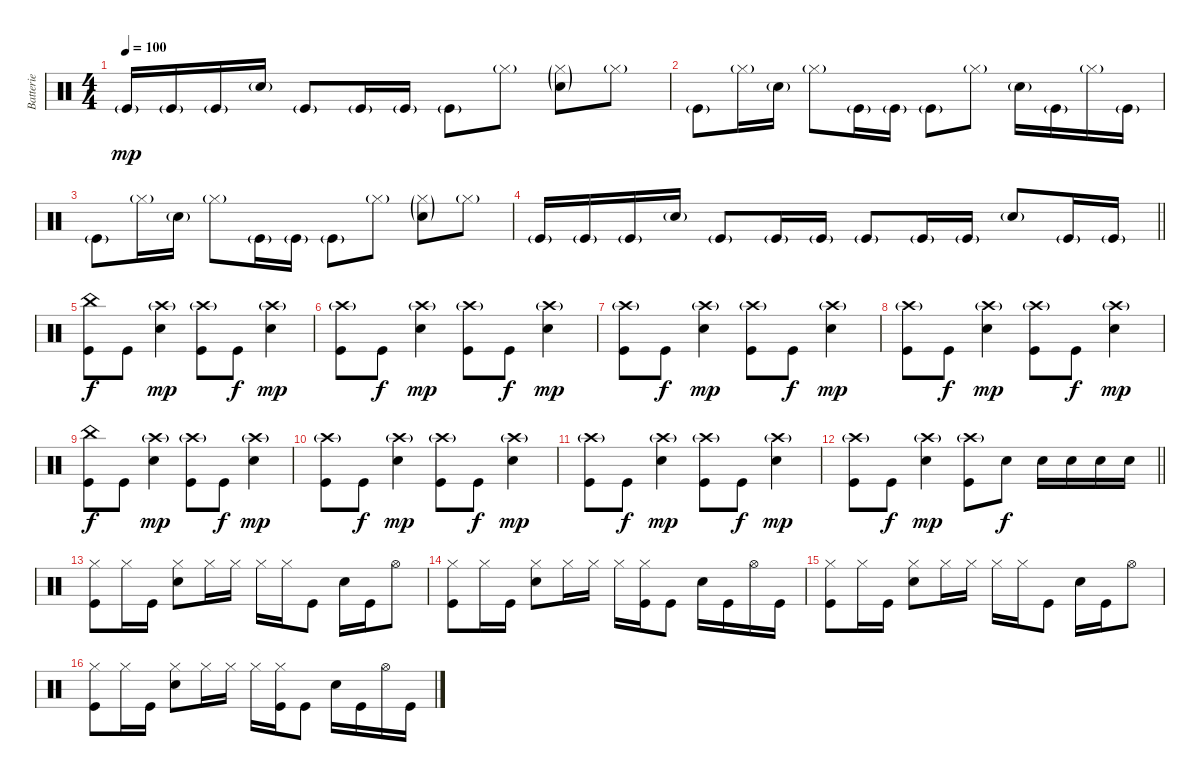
\track ("Batterie" "Batterie") {instrument percussion}
\staff {score}
\articulation defaults
\ts (4 4)
\tempo 100
\clef neutral
\ks c "Kick (hit)"{g}.16{dy mp} "Kick (hit)"{g}.16 "Kick (hit)"{g}.16 "Electric Snare (hit)"{g}.16 "Kick (hit)"{g}.8 "Kick (hit)"{g}.16 "Kick (hit)"{g}.16 "Kick (hit)"{g}.8 "Hi-Hat (closed)"{g}.8
("Hi-Hat (closed)"{g} "Electric Snare (hit)"{g}).8 "Hi-Hat (closed)"{g}.8 |
"Kick (hit)"{g}.8 "Hi-Hat (closed)"{g}.16 "Electric Snare (hit)"{g}.16 "Hi-Hat (closed)"{g}.8 "Kick (hit)"{g}.16 "Kick (hit)"{g}.16 "Kick (hit)"{g}.8 "Hi-Hat (closed)"{g}.8 "Electric Snare (hit)"{g}.16 "Kick (hit)"{g}.16 "Hi-Hat (closed)"{g}.16 "Kick (hit)"{g}.16 |
"Kick (hit)"{g}.8 "Hi-Hat (closed)"{g}.16 "Electric Snare (hit)"{g}.16 "Hi-Hat (closed)"{g}.8 "Kick (hit)"{g}.16 "Kick (hit)"{g}.16 "Kick (hit)"{g}.8 "Hi-Hat (closed)"{g}.8 ("Hi-Hat (closed)"{g} "Electric Snare (hit)"{g}).8 "Hi-Hat (closed)"{g}.8 |
\barLineRight lightlight "Kick (hit)"{g}.16 "Kick (hit)"{g}.16 "Kick (hit)"{g}.16 "Electric Snare (hit)"{g}.16 "Kick (hit)"{g}.8 "Kick (hit)"{g}.16 "Kick (hit)"{g}.16 "Kick (hit)"{g}.8 "Kick (hit)"{g}.16 "Kick (hit)"{g}.16 "Electric Snare (hit)"{g}.8 "Kick (hit)"{g}.16 "Kick (hit)"{g}.16
|
("China (hit)" "Kick (hit)").8{dy f} "Kick (hit)".8 ("Crash high (hit)"{g} "Electric Snare (hit)").4{dy mp} ("Crash high (hit)"{g} "Kick (hit)").8 "Kick (hit)".8{dy f} ("Crash high (hit)"{g} "Electric Snare (hit)").4{dy mp} |
("Crash high (hit)"{g} "Kick (hit)").8 "Kick (hit)".8{dy f} ("Crash high (hit)"{g} "Electric Snare (hit)").4{dy mp} ("Crash high (hit)"{g} "Kick (hit)").8 "Kick (hit)".8{dy f} ("Crash high (hit)"{g} "Electric Snare (hit)").4{dy mp} |
("Crash high (hit)"{g} "Kick (hit)").8 "Kick (hit)".8{dy f} ("Crash high (hit)"{g} "Electric Snare (hit)").4{dy mp} ("Crash high (hit)"{g} "Kick (hit)").8 "Kick (hit)".8{dy f} ("Crash high (hit)"{g} "Electric Snare (hit)").4{dy mp} |
("Crash high (hit)"{g} "Kick (hit)").8 "Kick (hit)".8{dy f} ("Crash high (hit)"{g} "Electric Snare (hit)").4{dy mp} ("Crash high (hit)"{g} "Kick (hit)").8 "Kick (hit)".8{dy f} ("Crash high (hit)"{g} "Electric Snare (hit)").4{dy mp} |
("China (hit)" "Kick (hit)").8{dy f} "Kick (hit)".8 ("Crash high (hit)"{g} "Electric Snare (hit)").4{dy mp} ("Crash high (hit)"{g} "Kick (hit)").8 "Kick (hit)".8{dy f} ("Crash high (hit)"{g} "Electric Snare (hit)").4{dy mp} |
("Crash high (hit)"{g} "Kick (hit)").8 "Kick (hit)".8{dy f} ("Crash high (hit)"{g} "Electric Snare (hit)").4{dy mp} ("Crash high (hit)"{g} "Kick (hit)").8 "Kick (hit)".8{dy f} ("Crash high (hit)"{g} "Electric Snare (hit)").4{dy mp} |
("Crash high (hit)"{g} "Kick (hit)").8 "Kick (hit)".8{dy f} ("Crash high (hit)"{g} "Electric Snare (hit)").4{dy mp} ("Crash high (hit)"{g} "Kick (hit)").8 "Kick (hit)".8{dy f} ("Crash high (hit)"{g} "Electric Snare (hit)").4{dy mp} |
\barLineRight lightlight
("Crash high (hit)"{g} "Kick (hit)").8 "Kick (hit)".8{dy f} ("Crash high (hit)"{g} "Electric Snare (hit)").4{dy mp} ("Crash high (hit)"{g} "Kick (hit)").8 "Electric Snare (hit)".8{dy f} "Electric Snare (hit)".16 "Electric Snare (hit)".16 "Electric Snare (hit)".16 "Electric Snare (hit)".16 |
("Hi-Hat (closed)" "Kick (hit)").8 "Hi-Hat (closed)".16 "Kick (hit)".16 ("Hi-Hat (closed)" "Electric Snare (hit)").8 "Hi-Hat (closed)".16 "Hi-Hat (closed)".16 "Hi-Hat (closed)".16 "Hi-Hat (closed)".16 "Kick (hit)".8 "Electric Snare (hit)".16 "Kick (hit)".16 "Hi-Hat (open)".8 |
("Hi-Hat (closed)" "Kick (hit)").8 "Hi-Hat (closed)".16 "Kick (hit)".16 ("Hi-Hat (closed)" "Electric Snare (hit)").8 "Hi-Hat (closed)".16 "Hi-Hat (closed)".16 "Hi-Hat (closed)".16 ("Hi-Hat (closed)" "Kick (hit)").16 "Kick (hit)".8 "Electric Snare (hit)".16 "Kick (hit)".16 "Hi-Hat (open)".16 "Kick (hit)".16 |
("Hi-Hat (closed)" "Kick (hit)").8 "Hi-Hat (closed)".16 "Kick (hit)".16 ("Hi-Hat (closed)" "Electric Snare (hit)").8 "Hi-Hat (closed)".16 "Hi-Hat (closed)".16 "Hi-Hat (closed)".16 "Hi-Hat (closed)".16 "Kick (hit)".8 "Electric Snare (hit)".16 "Kick (hit)".16 "Hi-Hat (open)".8 |
("Hi-Hat (closed)" "Kick (hit)").8 "Hi-Hat (closed)".16 "Kick (hit)".16 ("Hi-Hat (closed)" "Electric Snare (hit)").8 "Hi-Hat (closed)".16 "Hi-Hat (closed)".16 "Hi-Hat (closed)".16 ("Hi-Hat (closed)" "Kick (hit)").16 "Kick (hit)".8 "Electric Snare (hit)".16 "Kick (hit)".16 "Hi-Hat (open)".16 "Kick (hit)".16
